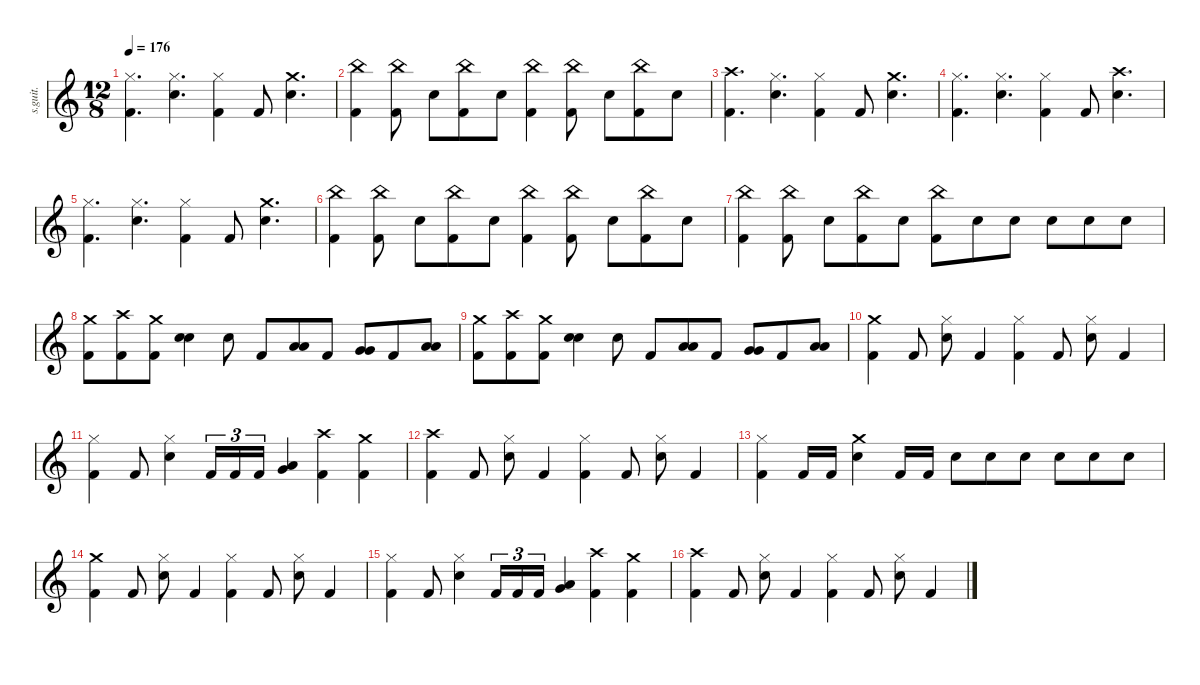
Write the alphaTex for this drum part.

\defaultSystemsLayout 4
\hideDynamics
\bracketExtendMode nobrackets
\track ("Vinnie Paul" "s.guit.") {instrument percussion}
\staff {score}
\articulation defaults
\ts (12 8)
\tempo 176
\clef g2
\ks c
("Hi-Hat (closed)" "Kick (hit) 2").4{d lyrics (0 "") lyrics (1 "") lyrics (2 "") lyrics (3 "") lyrics (4 "") dy f} ("Hi-Hat (closed)" "Snare (hit) 2").4{d lyrics (0 "") lyrics (1 "") lyrics (2 "") lyrics (3 "") lyrics (4 "")} ("Hi-Hat (closed)" "Kick (hit) 2").4{lyrics (0 "") lyrics (1 "") lyrics (2 "") lyrics (3 "") lyrics (4 "")} "Kick (hit) 2".8{lyrics (0 "") lyrics (1 "") lyrics (2 "") lyrics (3 "") lyrics (4 "")} ("Crash medium (hit)" "Snare (hit) 2").4{d lyrics (0 "") lyrics (1 "") lyrics (2 "") lyrics (3 "") lyrics (4 "")} |
("China (hit)" "Kick (hit) 2").4{lyrics (0 "") lyrics (1 "") lyrics (2 "") lyrics (3 "") lyrics (4 "")} ("China (hit)" "Kick (hit) 2").8{lyrics (0 "") lyrics (1 "") lyrics (2 "") lyrics (3 "") lyrics (4 "")} "Snare (hit) 2".8{lyrics (0 "") lyrics (1 "") lyrics (2 "") lyrics (3 "") lyrics (4 "")} ("China (hit)" "Kick (hit) 2").8{lyrics (0 "") lyrics (1 "") lyrics (2 "") lyrics (3 "") lyrics (4 "")} "Snare (hit) 2".8{lyrics (0 "") lyrics (1 "") lyrics (2 "") lyrics (3 "") lyrics (4 "")} ("China (hit)" "Kick (hit) 2").4{lyrics (0 "") lyrics (1 "") lyrics (2 "") lyrics (3 "") lyrics (4 "")} ("China (hit)" "Kick (hit) 2").8{lyrics (0 "") lyrics (1 "") lyrics (2 "") lyrics (3 "") lyrics (4 "")} "Snare (hit) 2".8{lyrics (0 "") lyrics (1 "") lyrics (2 "") lyrics (3 "") lyrics (4 "")} ("China (hit)" "Kick (hit) 2").8{lyrics (0 "") lyrics (1 "") lyrics (2 "") lyrics (3 "") lyrics (4 "")} "Snare (hit) 2".8{lyrics (0 "") lyrics (1 "") lyrics (2 "") lyrics (3 "") lyrics (4 "")} |
("Crash high (hit)" "Kick (hit) 2").4{d lyrics (0 "") lyrics (1 "") lyrics (2 "") lyrics (3 "") lyrics (4 "")} ("Hi-Hat (closed)" "Snare (hit) 2").4{d lyrics (0 "") lyrics (1 "") lyrics (2 "") lyrics (3 "") lyrics (4 "")} ("Hi-Hat (closed)" "Kick (hit) 2").4{lyrics (0 "") lyrics (1 "") lyrics (2 "") lyrics (3 "") lyrics (4 "")} "Kick (hit) 2".8{lyrics (0 "") lyrics (1 "") lyrics (2 "") lyrics (3 "") lyrics (4 "")} ("Crash medium (hit)" "Snare (hit) 2").4{d lyrics (0 "") lyrics (1 "") lyrics (2 "") lyrics (3 "") lyrics (4 "")} |
("Hi-Hat (closed)" "Kick (hit) 2").4{d lyrics (0 "") lyrics (1 "") lyrics (2 "") lyrics (3 "") lyrics (4 "")} ("Hi-Hat (closed)" "Snare (hit) 2").4{d lyrics (0 "") lyrics (1 "") lyrics (2 "") lyrics (3 "") lyrics (4 "")} ("Hi-Hat (closed)" "Kick (hit) 2").4{lyrics (0 "") lyrics (1 "") lyrics (2 "") lyrics (3 "") lyrics (4 "")} "Kick (hit) 2".8{lyrics (0 "") lyrics (1 "") lyrics (2 "") lyrics (3 "") lyrics (4 "")} ("Crash high (hit)" "Snare (hit) 2").4{d lyrics (0 "") lyrics (1 "") lyrics (2 "") lyrics (3 "") lyrics (4 "")} |
("Hi-Hat (closed)" "Kick (hit) 2").4{d lyrics (0 "") lyrics (1 "") lyrics (2 "") lyrics (3 "") lyrics (4 "")} ("Hi-Hat (closed)" "Snare (hit) 2").4{d lyrics (0 "") lyrics (1 "") lyrics (2 "") lyrics (3 "") lyrics (4 "")} ("Hi-Hat (closed)" "Kick (hit) 2").4{lyrics (0 "") lyrics (1 "") lyrics (2 "") lyrics (3 "") lyrics (4 "")} "Kick (hit) 2".8{lyrics (0 "") lyrics (1 "") lyrics (2 "") lyrics (3 "") lyrics (4 "")} ("Crash medium (hit)" "Snare (hit) 2").4{d lyrics (0 "") lyrics (1 "") lyrics (2 "") lyrics (3 "") lyrics (4 "")} |
("China (hit)" "Kick (hit) 2").4{lyrics (0 "") lyrics (1 "") lyrics (2 "") lyrics (3 "") lyrics (4 "")} ("China (hit)" "Kick (hit) 2").8{lyrics (0 "") lyrics (1 "") lyrics (2 "") lyrics (3 "") lyrics (4 "")} "Snare (hit) 2".8{lyrics (0 "") lyrics (1 "") lyrics (2 "") lyrics (3 "") lyrics (4 "")} ("China (hit)" "Kick (hit) 2").8{lyrics (0 "") lyrics (1 "") lyrics (2 "") lyrics (3 "") lyrics (4 "")} "Snare (hit) 2".8{lyrics (0 "") lyrics (1 "") lyrics (2 "") lyrics (3 "") lyrics (4 "")} ("China (hit)" "Kick (hit) 2").4{lyrics (0 "") lyrics (1 "") lyrics (2 "") lyrics (3 "") lyrics (4 "")} ("China (hit)" "Kick (hit) 2").8{lyrics (0 "") lyrics (1 "") lyrics (2 "") lyrics (3 "") lyrics (4 "")} "Snare (hit) 2".8{lyrics (0 "") lyrics (1 "") lyrics (2 "") lyrics (3 "") lyrics (4 "")} ("China (hit)" "Kick (hit) 2").8{lyrics (0 "") lyrics (1 "") lyrics (2 "") lyrics (3 "") lyrics (4 "")} "Snare (hit) 2".8{lyrics (0 "") lyrics (1 "") lyrics (2 "") lyrics (3 "") lyrics (4 "")} |
("China (hit)" "Kick (hit) 2").4{lyrics (0 "") lyrics (1 "") lyrics (2 "") lyrics (3 "") lyrics (4 "")} ("China (hit)" "Kick (hit) 2").8{lyrics (0 "") lyrics (1 "") lyrics (2 "") lyrics (3 "") lyrics (4 "")} "Snare (hit) 2".8{lyrics (0 "") lyrics (1 "") lyrics (2 "") lyrics (3 "") lyrics (4 "")} ("China (hit)" "Kick (hit) 2").8{lyrics (0 "") lyrics (1 "") lyrics (2 "") lyrics (3 "") lyrics (4 "")} "Snare (hit) 2".8{lyrics (0 "") lyrics (1 "") lyrics (2 "") lyrics (3 "") lyrics (4 "")} ("China (hit)" "Kick (hit) 2").8{lyrics (0 "") lyrics (1 "") lyrics (2 "") lyrics (3 "") lyrics (4 "")} "Snare (hit) 2".8{lyrics (0 "") lyrics (1 "") lyrics (2 "") lyrics (3 "") lyrics (4 "")} "Snare (hit) 2".8{lyrics (0 "") lyrics (1 "") lyrics (2 "") lyrics (3 "") lyrics (4 "")} "Snare (hit) 2".8{lyrics (0 "") lyrics (1 "") lyrics (2 "") lyrics (3 "") lyrics (4 "")} "Snare (hit) 2".8{lyrics (0 "") lyrics (1 "") lyrics (2 "") lyrics (3 "") lyrics (4 "")} "Snare (hit) 2".8{lyrics (0 "") lyrics (1 "") lyrics (2 "") lyrics (3 "") lyrics (4 "")} |
("Crash medium (hit)" "Kick (hit) 2").8{lyrics (0 "") lyrics (1 "") lyrics (2 "") lyrics (3 "") lyrics (4 "")} ("Crash high (hit)" "Kick (hit) 2").8{lyrics (0 "") lyrics (1 "") lyrics (2 "") lyrics (3 "") lyrics (4 "")} ("Crash medium (hit)" "Kick (hit) 2").8{lyrics (0 "") lyrics (1 "") lyrics (2 "") lyrics (3 "") lyrics (4 "")} ("Snare (hit) 2" "Snare (hit) 2").4{lyrics (0 "") lyrics (1 "") lyrics (2 "") lyrics (3 "") lyrics (4 "")} "Snare (hit) 2".8{lyrics (0 "") lyrics (1 "") lyrics (2 "") lyrics (3 "") lyrics (4 "")} "Kick (hit) 2".8{lyrics (0 "") lyrics (1 "") lyrics (2 "") lyrics (3 "") lyrics (4 "")} ("Low Tom (hit)" "Low Tom (hit)").8{lyrics (0 "") lyrics (1 "") lyrics (2 "") lyrics (3 "") lyrics (4 "")} "Kick (hit) 2".8{lyrics (0 "") lyrics (1 "") lyrics (2 "") lyrics (3 "") lyrics (4 "")} ("Very Low Tom (hit)" "Very Low Tom (hit)").8{lyrics (0 "") lyrics (1 "") lyrics (2 "") lyrics (3 "") lyrics (4 "")} "Kick (hit) 2".8{lyrics (0 "") lyrics (1 "") lyrics (2 "") lyrics (3 "") lyrics (4 "")} ("Low Floor Tom (hit)" "Low Floor Tom (hit)").8{lyrics (0 "") lyrics (1 "") lyrics (2 "") lyrics (3 "") lyrics (4 "")} |
("Crash medium (hit)" "Kick (hit) 2").8{lyrics (0 "") lyrics (1 "") lyrics (2 "") lyrics (3 "") lyrics (4 "")} ("Crash high (hit)" "Kick (hit) 2").8{lyrics (0 "") lyrics (1 "") lyrics (2 "") lyrics (3 "") lyrics (4 "")} ("Crash medium (hit)" "Kick (hit) 2").8{lyrics (0 "") lyrics (1 "") lyrics (2 "") lyrics (3 "") lyrics (4 "")} ("Snare (hit) 2" "Snare (hit) 2").4{lyrics (0 "") lyrics (1 "") lyrics (2 "") lyrics (3 "") lyrics (4 "")} "Snare (hit) 2".8{lyrics (0 "") lyrics (1 "") lyrics (2 "") lyrics (3 "") lyrics (4 "")} "Kick (hit) 2".8{lyrics (0 "") lyrics (1 "") lyrics (2 "") lyrics (3 "") lyrics (4 "")} ("Low Tom (hit)" "Low Tom (hit)").8{lyrics (0 "") lyrics (1 "") lyrics (2 "") lyrics (3 "") lyrics (4 "")} "Kick (hit) 2".8{lyrics (0 "") lyrics (1 "") lyrics (2 "") lyrics (3 "") lyrics (4 "")} ("Very Low Tom (hit)" "Very Low Tom (hit)").8{lyrics (0 "") lyrics (1 "") lyrics (2 "") lyrics (3 "") lyrics (4 "")} "Kick (hit) 2".8{lyrics (0 "") lyrics (1 "") lyrics (2 "") lyrics (3 "") lyrics (4 "")} ("Low Floor Tom (hit)" "Low Floor Tom (hit)").8{lyrics (0 "") lyrics (1 "") lyrics (2 "") lyrics (3 "") lyrics (4 "")} |
("Crash medium (hit)" "Kick (hit) 2").4{lyrics (0 "") lyrics (1 "") lyrics (2 "") lyrics (3 "") lyrics (4 "")} "Kick (hit) 2".8{lyrics (0 "") lyrics (1 "") lyrics (2 "") lyrics (3 "") lyrics (4 "")} ("Hi-Hat (closed)" "Snare (hit) 2").8{lyrics (0 "") lyrics (1 "") lyrics (2 "") lyrics (3 "") lyrics (4 "")} "Kick (hit) 2".4{lyrics (0 "") lyrics (1 "") lyrics (2 "") lyrics (3 "") lyrics (4 "")} ("Hi-Hat (closed)" "Kick (hit) 2").4{lyrics (0 "") lyrics (1 "") lyrics (2 "") lyrics (3 "") lyrics (4 "")} "Kick (hit) 2".8{lyrics (0 "") lyrics (1 "") lyrics (2 "") lyrics (3 "") lyrics (4 "")} ("Hi-Hat (closed)" "Snare (hit) 2").8{lyrics (0 "") lyrics (1 "") lyrics (2 "") lyrics (3 "") lyrics (4 "")} "Kick (hit) 2".4{lyrics (0 "") lyrics (1 "") lyrics (2 "") lyrics (3 "") lyrics (4 "")} |
("Hi-Hat (closed)" "Kick (hit) 2").4{lyrics (0 "") lyrics (1 "") lyrics (2 "") lyrics (3 "") lyrics (4 "")} "Kick (hit) 2".8{lyrics (0 "") lyrics (1 "") lyrics (2 "") lyrics (3 "") lyrics (4 "")} ("Hi-Hat (closed)" "Snare (hit) 2").4{lyrics (0 "") lyrics (1 "") lyrics (2 "") lyrics (3 "") lyrics (4 "")} "Kick (hit) 2".16{tu (3 2) lyrics (0 "") lyrics (1 "") lyrics (2 "") lyrics (3 "") lyrics (4 "")} "Kick (hit) 2".16{tu (3 2) lyrics (0 "") lyrics (1 "") lyrics (2 "") lyrics (3 "") lyrics (4 "")} "Kick (hit) 2".16{tu (3 2) lyrics (0 "") lyrics (1 "") lyrics (2 "") lyrics (3 "") lyrics (4 "")} ("Very Low Tom (hit)" "Low Floor Tom (hit)").4{lyrics (0 "") lyrics (1 "") lyrics (2 "") lyrics (3 "") lyrics (4 "")} ("Crash high (hit)" "Kick (hit) 2").4{lyrics (0 "") lyrics (1 "") lyrics (2 "") lyrics (3 "") lyrics (4 "")} ("Crash medium (hit)" "Kick (hit) 2").4{lyrics (0 "") lyrics (1 "") lyrics (2 "") lyrics (3 "") lyrics (4 "")} |
("Crash high (hit)" "Kick (hit) 2").4{lyrics (0 "") lyrics (1 "") lyrics (2 "") lyrics (3 "") lyrics (4 "")} "Kick (hit) 2".8{lyrics (0 "") lyrics (1 "") lyrics (2 "") lyrics (3 "") lyrics (4 "")} ("Hi-Hat (closed)" "Snare (hit) 2").8{lyrics (0 "") lyrics (1 "") lyrics (2 "") lyrics (3 "") lyrics (4 "")} "Kick (hit) 2".4{lyrics (0 "") lyrics (1 "") lyrics (2 "") lyrics (3 "") lyrics (4 "")} ("Hi-Hat (closed)" "Kick (hit) 2").4{lyrics (0 "") lyrics (1 "") lyrics (2 "") lyrics (3 "") lyrics (4 "")} "Kick (hit) 2".8{lyrics (0 "") lyrics (1 "") lyrics (2 "") lyrics (3 "") lyrics (4 "")} ("Hi-Hat (closed)" "Snare (hit) 2").8{lyrics (0 "") lyrics (1 "") lyrics (2 "") lyrics (3 "") lyrics (4 "")} "Kick (hit) 2".4{lyrics (0 "") lyrics (1 "") lyrics (2 "") lyrics (3 "") lyrics (4 "")} |
("Hi-Hat (closed)" "Kick (hit) 2").4{lyrics (0 "") lyrics (1 "") lyrics (2 "") lyrics (3 "") lyrics (4 "")} "Kick (hit) 2".16{lyrics (0 "") lyrics (1 "") lyrics (2 "") lyrics (3 "") lyrics (4 "")} "Kick (hit) 2".16{lyrics (0 "") lyrics (1 "") lyrics (2 "") lyrics (3 "") lyrics (4 "")} ("Crash medium (hit)" "Snare (hit) 2").4{lyrics (0 "") lyrics (1 "") lyrics (2 "") lyrics (3 "") lyrics (4 "")} "Kick (hit) 2".16{lyrics (0 "") lyrics (1 "") lyrics (2 "") lyrics (3 "") lyrics (4 "")} "Kick (hit) 2".16{lyrics (0 "") lyrics (1 "") lyrics (2 "") lyrics (3 "") lyrics (4 "")} "Snare (hit) 2".8{lyrics (0 "") lyrics (1 "") lyrics (2 "") lyrics (3 "") lyrics (4 "")} "Snare (hit) 2".8{lyrics (0 "") lyrics (1 "") lyrics (2 "") lyrics (3 "") lyrics (4 "")} "Snare (hit) 2".8{lyrics (0 "") lyrics (1 "") lyrics (2 "") lyrics (3 "") lyrics (4 "")} "Snare (hit) 2".8{lyrics (0 "") lyrics (1 "") lyrics (2 "") lyrics (3 "") lyrics (4 "")} "Snare (hit) 2".8{lyrics (0 "") lyrics (1 "") lyrics (2 "") lyrics (3 "") lyrics (4 "")} "Snare (hit) 2".8{lyrics (0 "") lyrics (1 "") lyrics (2 "") lyrics (3 "") lyrics (4 "")} |
("Crash medium (hit)" "Kick (hit) 2").4{lyrics (0 "") lyrics (1 "") lyrics (2 "") lyrics (3 "") lyrics (4 "")} "Kick (hit) 2".8{lyrics (0 "") lyrics (1 "") lyrics (2 "") lyrics (3 "") lyrics (4 "")} ("Hi-Hat (closed)" "Snare (hit) 2").8{lyrics (0 "") lyrics (1 "") lyrics (2 "") lyrics (3 "") lyrics (4 "")} "Kick (hit) 2".4{lyrics (0 "") lyrics (1 "") lyrics (2 "") lyrics (3 "") lyrics (4 "")} ("Hi-Hat (closed)" "Kick (hit) 2").4{lyrics (0 "") lyrics (1 "") lyrics (2 "") lyrics (3 "") lyrics (4 "")} "Kick (hit) 2".8{lyrics (0 "") lyrics (1 "") lyrics (2 "") lyrics (3 "") lyrics (4 "")} ("Hi-Hat (closed)" "Snare (hit) 2").8{lyrics (0 "") lyrics (1 "") lyrics (2 "") lyrics (3 "") lyrics (4 "")} "Kick (hit) 2".4{lyrics (0 "") lyrics (1 "") lyrics (2 "") lyrics (3 "") lyrics (4 "")} |
("Hi-Hat (closed)" "Kick (hit) 2").4{lyrics (0 "") lyrics (1 "") lyrics (2 "") lyrics (3 "") lyrics (4 "")} "Kick (hit) 2".8{lyrics (0 "") lyrics (1 "") lyrics (2 "") lyrics (3 "") lyrics (4 "")} ("Hi-Hat (closed)" "Snare (hit) 2").4{lyrics (0 "") lyrics (1 "") lyrics (2 "") lyrics (3 "") lyrics (4 "")} "Kick (hit) 2".16{tu (3 2) lyrics (0 "") lyrics (1 "") lyrics (2 "") lyrics (3 "") lyrics (4 "")} "Kick (hit) 2".16{tu (3 2) lyrics (0 "") lyrics (1 "") lyrics (2 "") lyrics (3 "") lyrics (4 "")} "Kick (hit) 2".16{tu (3 2) lyrics (0 "") lyrics (1 "") lyrics (2 "") lyrics (3 "") lyrics (4 "")} ("Very Low Tom (hit)" "Low Floor Tom (hit)").4{lyrics (0 "") lyrics (1 "") lyrics (2 "") lyrics (3 "") lyrics (4 "")} ("Crash high (hit)" "Kick (hit) 2").4{lyrics (0 "") lyrics (1 "") lyrics (2 "") lyrics (3 "") lyrics (4 "")} ("Crash medium (hit)" "Kick (hit) 2").4{lyrics (0 "") lyrics (1 "") lyrics (2 "") lyrics (3 "") lyrics (4 "")} |
("Crash high (hit)" "Kick (hit) 2").4{lyrics (0 "") lyrics (1 "") lyrics (2 "") lyrics (3 "") lyrics (4 "")} "Kick (hit) 2".8{lyrics (0 "") lyrics (1 "") lyrics (2 "") lyrics (3 "") lyrics (4 "")} ("Hi-Hat (closed)" "Snare (hit) 2").8{lyrics (0 "") lyrics (1 "") lyrics (2 "") lyrics (3 "") lyrics (4 "")} "Kick (hit) 2".4{lyrics (0 "") lyrics (1 "") lyrics (2 "") lyrics (3 "") lyrics (4 "")} ("Hi-Hat (closed)" "Kick (hit) 2").4{lyrics (0 "") lyrics (1 "") lyrics (2 "") lyrics (3 "") lyrics (4 "")} "Kick (hit) 2".8{lyrics (0 "") lyrics (1 "") lyrics (2 "") lyrics (3 "") lyrics (4 "")} ("Hi-Hat (closed)" "Snare (hit) 2").8{lyrics (0 "") lyrics (1 "") lyrics (2 "") lyrics (3 "") lyrics (4 "")} "Kick (hit) 2".4{lyrics (0 "") lyrics (1 "") lyrics (2 "") lyrics (3 "") lyrics (4 "")}
